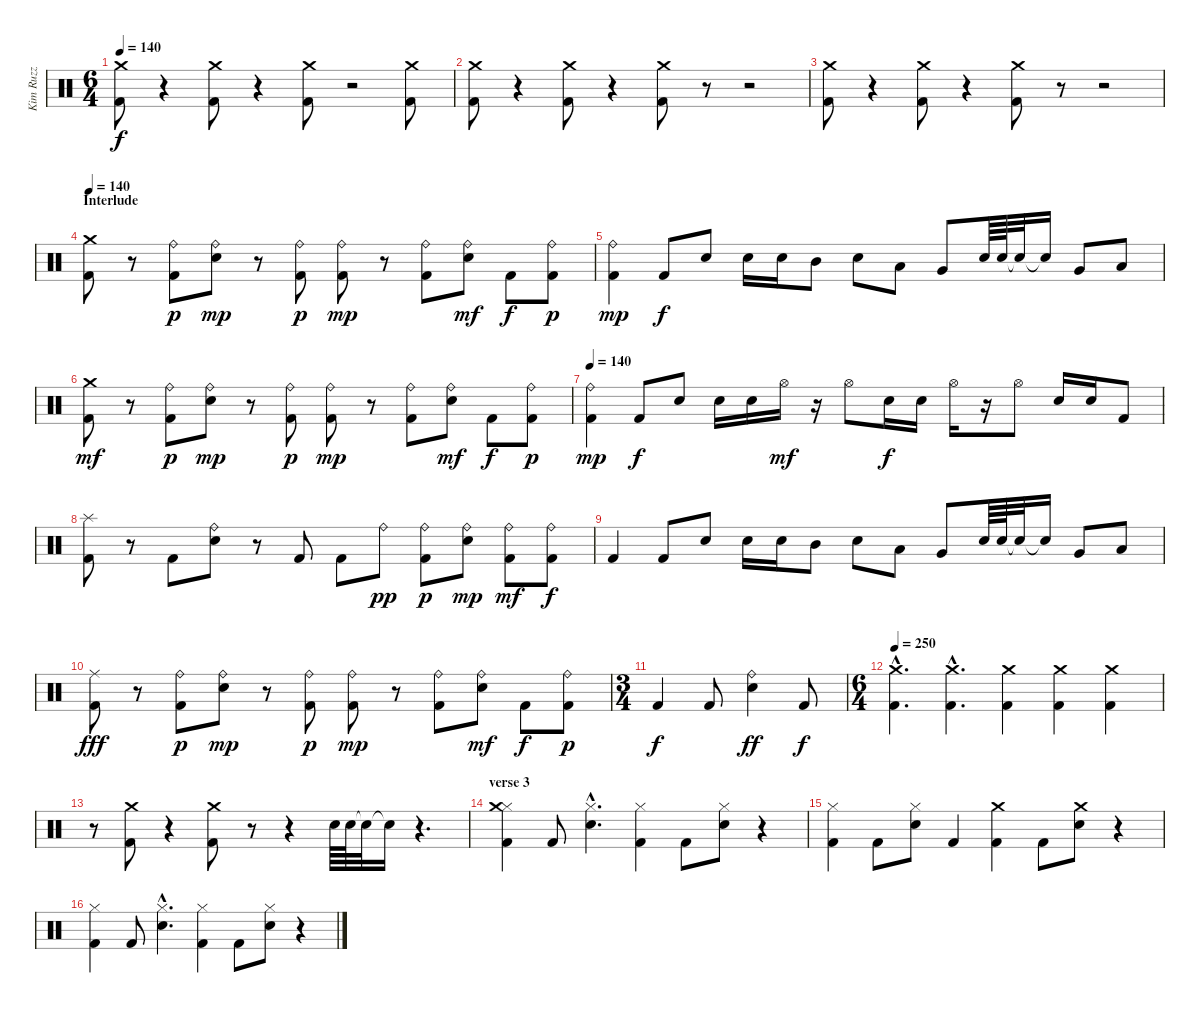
\track ("Kim Ruzz" "Kim Ruzz") {instrument percussion}
\staff {score}
\articulation defaults
\ts (6 4)
\tempo 140
\clef neutral
\ks c
("Kick (hit) 2" "Crash medium (hit)").8{dy f} r.4 ("Kick (hit) 2" "Crash medium (hit)").8 r.4 ("Kick (hit) 2" "Crash medium (hit)").8 r.2 ("Kick (hit) 2" "Crash medium (hit)").8 |
("Kick (hit) 2" "Crash medium (hit)").8 r.4 ("Kick (hit) 2" "Crash medium (hit)").8 r.4 ("Kick (hit) 2" "Crash medium (hit)").8 r.8 r.2 |
("Kick (hit) 2" "Crash medium (hit)").8 r.4 ("Kick (hit) 2" "Crash medium (hit)").8 r.4 ("Kick (hit) 2" "Crash medium (hit)").8 r.8 r.2 |
\section ("" "Interlude")
\tempo 140
("Kick (hit) 2" "Crash medium (hit)").8 r.8 ("Kick (hit) 2" "Ride (bell)").8{dy p} ("Ride (bell)" "Snare (hit) 2").8{dy mp} r.8 ("Kick (hit) 2" "Ride (bell)").8{dy p} ("Kick (hit) 2" "Ride (bell)").8{dy mp} r.8 ("Kick (hit) 2" "Ride (bell)").8 ("Ride (bell)" "Snare (hit) 2").8{dy mf} "Kick (hit) 2".8{dy f} ("Kick (hit) 2" "Ride (bell)").8{dy p} |
("Kick (hit) 2" "Ride (bell)").4{dy mp} "Kick (hit) 2".8{dy f} "Snare (hit) 2".8 "Snare (hit) 2".16 "Snare (hit) 2".16 "Mid Tom (hit)".8 "Snare (hit) 2".8 "Low Tom (hit)".8 "Very Low Tom (hit)".8 "Snare (hit) 2".64 "Snare (hit) 2".64 "Snare (hit)"{t}.32 "Snare (hit)"{t}.16 "Very Low Tom (hit)".8 "Low Floor Tom (hit)".8 |
("Kick (hit) 2" "Crash medium (hit)").8{dy mf} r.8 ("Kick (hit) 2" "Ride (bell)").8{dy p} ("Ride (bell)" "Snare (hit) 2").8{dy mp} r.8 ("Kick (hit) 2" "Ride (bell)").8{dy p} ("Kick (hit) 2" "Ride (bell)").8{dy mp} r.8 ("Kick (hit) 2" "Ride (bell)").8 ("Ride (bell)" "Snare (hit) 2").8{dy mf} "Kick (hit) 2".8{dy f} ("Kick (hit) 2" "Ride (bell)").8{dy p} |
\tempo 140
("Kick (hit) 2" "Ride (bell)").4{dy mp} "Kick (hit) 2".8{dy f} "Snare (hit) 2".8 "Snare (hit) 2".16 "Snare (hit) 2".16 "Hi-Hat (open)".16{dy mf} r.16 "Hi-Hat (open)".8 "Snare (hit) 2".16{dy f} "Snare (hit) 2".16 "Hi-Hat (open)".16 r.16 "Hi-Hat (open)".8 "Snare (hit) 2".16 "Snare (hit) 2".16 "Kick (hit) 2".8 |
("Kick (hit) 2" "Splash (hit)").8 r.8 "Kick (hit) 2".8 ("Ride (bell)" "Snare (hit) 2").8 r.8 "Kick (hit) 2".8 "Kick (hit) 2".8 "Ride (bell)".8{dy pp} ("Kick (hit) 2" "Ride (bell)").8{dy p} ("Ride (bell)" "Snare (hit) 2").8{dy mp} ("Kick (hit) 2" "Ride (bell)").8{dy mf} ("Kick (hit) 2" "Ride (bell)").8{dy f} |
"Kick (hit) 2".4 "Kick (hit) 2".8 "Snare (hit) 2".8 "Snare (hit) 2".16 "Snare (hit) 2".16 "Mid Tom (hit)".8 "Snare (hit) 2".8 "Low Tom (hit)".8 "Very Low Tom (hit)".8 "Snare (hit) 2".64 "Snare (hit) 2".64 "Snare (hit)"{t}.32 "Snare (hit)"{t}.16 "Very Low Tom (hit)".8 "Low Floor Tom (hit)".8 |
("Kick (hit) 2" "Ride (middle)").8{dy fff} r.8 ("Kick (hit) 2" "Ride (bell)").8{dy p} ("Ride (bell)" "Snare (hit) 2").8{dy mp} r.8 ("Kick (hit) 2" "Ride (bell)").8{dy p} ("Kick (hit) 2" "Ride (bell)").8{dy mp} r.8 ("Kick (hit) 2" "Ride (bell)").8 ("Ride (bell)" "Snare (hit) 2").8{dy mf} "Kick (hit) 2".8{dy f} ("Kick (hit) 2" "Ride (bell)").8{dy p} |
\ts (3 4)
"Kick (hit) 2".4{dy f} "Kick (hit) 2".8 ("Ride (bell)" "Snare (hit) 2").4{dy ff} "Kick (hit) 2".8{dy f} |
\ts (6 4)
\tempo 250
("Kick (hit) 2"{hac} "Crash medium (hit)"{hac}).4{d} ("Kick (hit) 2"{hac} "Crash medium (hit)"{hac}).4{d} ("Kick (hit) 2" "Crash medium (hit)").4 ("Kick (hit) 2" "Crash medium (hit)").4 ("Kick (hit) 2" "Crash medium (hit)").4 |
r.8 ("Kick (hit) 2" "Crash medium (hit)").8 r.4 ("Kick (hit) 2" "Crash medium (hit)").8 r.8 r.4 "Snare (hit) 2".64 "Snare (hit) 2".64 "Snare (hit)"{t}.32 "Snare (hit)"{t}.16 r.4{d} |
\section ("" "verse 3")
("Kick (hit) 2" "Hi-Hat (closed)" "Crash medium (hit)").4 "Kick (hit) 2".8 ("Hi-Hat (closed)"{hac} "Snare (hit) 2"{hac}).4{d} ("Kick (hit) 2" "Hi-Hat (closed)").4 "Kick (hit) 2".8 ("Hi-Hat (closed)" "Snare (hit) 2").8 r.4 |
("Kick (hit) 2" "Hi-Hat (closed)").4 "Kick (hit) 2".8 ("Hi-Hat (closed)" "Snare (hit) 2").8 "Kick (hit) 2".4 ("Kick (hit) 2" "Crash medium (hit)").4 "Kick (hit) 2".8 ("Crash medium (hit)" "Snare (hit) 2").8 r.4 |
("Kick (hit) 2" "Hi-Hat (closed)").4 "Kick (hit) 2".8 ("Hi-Hat (closed)"{hac} "Snare (hit) 2"{hac}).4{d} ("Kick (hit) 2" "Hi-Hat (closed)").4 "Kick (hit) 2".8 ("Hi-Hat (closed)" "Snare (hit) 2").8 r.4
